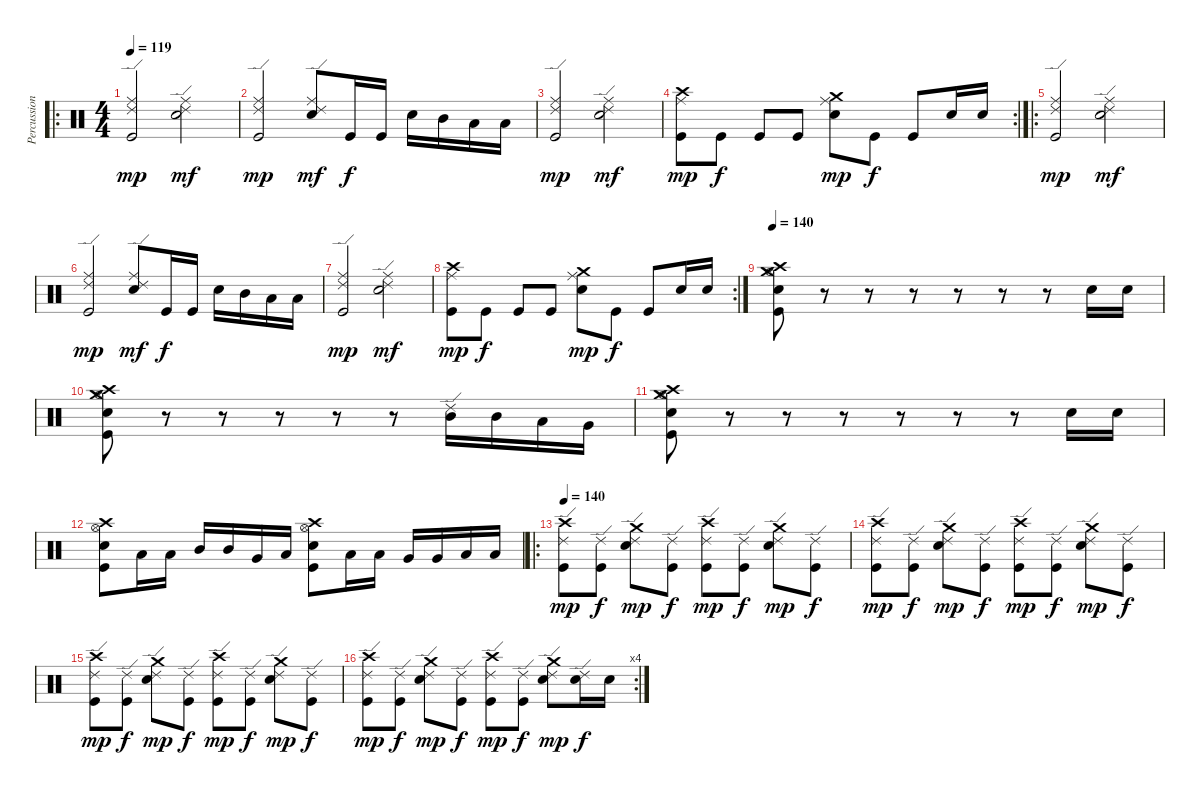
\track ("Percussion" "Percussion") {instrument percussion}
\staff {score}
\articulation defaults
\ro
\ts (4 4)
\tempo 119
\clef neutral
\ks c
("Ride (edge) 2" "Ride (middle)" "Kick (hit)").2{dy mp} ("Ride (edge) 2" "Ride (middle)" "Snare (hit) 2").2{dy mf} |
("Ride (edge) 2" "Ride (middle)" "Kick (hit)").2{dy mp} ("Ride (edge) 2" "Ride (middle)" "Snare (hit) 2").8{dy mf} "Kick (hit)".16{dy f} "Kick (hit)".16 "Snare (hit) 2".16 "Mid Tom (hit)".16 "Low Tom (hit)".16 "Low Tom (hit)".16 |
("Ride (edge) 2" "Ride (middle)" "Kick (hit)").2{dy mp} ("Ride (edge) 2" "Ride (middle)" "Snare (hit) 2").2{dy mf} |
\rc 2
("Crash high (hit)" "Ride (middle)" "Kick (hit)").8{dy mp} "Kick (hit)".8{dy f} "Kick (hit)".8 "Kick (hit)".8 ("Crash medium (hit)" "Ride (middle)" "Snare (hit) 2").8{dy mp} "Kick (hit)".8{dy f} "Kick (hit)".8 "Snare (hit) 2".16 "Snare (hit) 2".16 |
\ro
("Ride (edge) 2" "Ride (middle)" "Kick (hit)").2{dy mp} ("Ride (edge) 2" "Ride (middle)" "Snare (hit) 2").2{dy mf} |
("Ride (edge) 2" "Ride (middle)" "Kick (hit)").2{dy mp} ("Ride (edge) 2" "Ride (middle)" "Snare (hit) 2").8{dy mf} "Kick (hit)".16{dy f} "Kick (hit)".16 "Snare (hit) 2".16 "Mid Tom (hit)".16 "Low Tom (hit)".16 "Low Tom (hit)".16 |
("Ride (edge) 2" "Ride (middle)" "Kick (hit)").2{dy mp} ("Ride (edge) 2" "Ride (middle)" "Snare (hit) 2").2{dy mf} |
\rc 2
("Crash high (hit)" "Ride (middle)" "Kick (hit)").8{dy mp} "Kick (hit)".8{dy f} "Kick (hit)".8 "Kick (hit)".8 ("Crash medium (hit)" "Ride (middle)" "Snare (hit) 2").8{dy mp} "Kick (hit)".8{dy f} "Kick (hit)".8 "Snare (hit) 2".16 "Snare (hit) 2".16 |
\tempo 140
("Crash medium (hit)" "Crash high (hit)" "Hi-Hat (open)" "Snare (hit) 2" "Kick (hit)").8 r.8 r.8 r.8 r.8 r.8 r.8 "Snare (hit) 2".16 "Snare (hit) 2".16 |
("Crash medium (hit)" "Crash high (hit)" "Hi-Hat (open)" "Snare (hit) 2" "Kick (hit)").8 r.8 r.8 r.8 r.8 r.8 ("Ride (edge) 2" "Mid Tom (hit)").16 "Mid Tom (hit)".16 "Low Tom (hit)".16 "Very Low Tom (hit)".16 |
("Crash medium (hit)" "Crash high (hit)" "Hi-Hat (open)" "Snare (hit) 2" "Kick (hit)").8 r.8 r.8 r.8 r.8 r.8 r.8 "Snare (hit) 2".16 "Snare (hit) 2".16 |
("Hi-Hat (open)" "Crash high (hit)" "Snare (hit) 2" "Kick (hit)").8 "Low Tom (hit)".16 "Low Tom (hit)".16 "Mid Tom (hit)".16 "Mid Tom (hit)".16 "Very Low Tom (hit)".16 "Low Floor Tom (hit)".16 ("Hi-Hat (open)" "Crash high (hit)" "Snare (hit) 2" "Kick (hit)").8 "Low Tom (hit)".16 "Low Tom (hit)".16 "Very Low Tom (hit)".16 "Very Low Tom (hit)".16 "Low Tom (hit)".16 "Low Tom (hit)".16 |
\ro
\tempo 140
("Crash high (hit)" "Ride (edge) 2" "Kick (hit)").8{dy mp} ("Ride (edge) 2" "Kick (hit)").8{dy f} ("Crash medium (hit)" "Ride (edge) 2" "Snare (hit) 2").8{dy mp} ("Ride (edge) 2" "Kick (hit)").8{dy f} ("Crash high (hit)" "Ride (edge) 2" "Kick (hit)").8{dy mp} ("Ride (edge) 2" "Kick (hit)").8{dy f} ("Crash medium (hit)" "Ride (edge) 2" "Snare (hit) 2").8{dy mp} ("Ride (edge) 2" "Kick (hit)").8{dy f} |
("Crash high (hit)" "Ride (edge) 2" "Kick (hit)").8{dy mp} ("Ride (edge) 2" "Kick (hit)").8{dy f} ("Crash medium (hit)" "Ride (edge) 2" "Snare (hit) 2").8{dy mp} ("Ride (edge) 2" "Kick (hit)").8{dy f} ("Crash high (hit)" "Ride (edge) 2" "Kick (hit)").8{dy mp} ("Ride (edge) 2" "Kick (hit)").8{dy f} ("Crash medium (hit)" "Ride (edge) 2" "Snare (hit) 2").8{dy mp} ("Ride (edge) 2" "Kick (hit)").8{dy f} |
("Crash high (hit)" "Ride (edge) 2" "Kick (hit)").8{dy mp} ("Ride (edge) 2" "Kick (hit)").8{dy f} ("Crash medium (hit)" "Ride (edge) 2" "Snare (hit) 2").8{dy mp} ("Ride (edge) 2" "Kick (hit)").8{dy f} ("Crash high (hit)" "Ride (edge) 2" "Kick (hit)").8{dy mp} ("Ride (edge) 2" "Kick (hit)").8{dy f} ("Crash medium (hit)" "Ride (edge) 2" "Snare (hit) 2").8{dy mp} ("Ride (edge) 2" "Kick (hit)").8{dy f} |
\rc 4
("Crash high (hit)" "Ride (edge) 2" "Kick (hit)").8{dy mp} ("Ride (edge) 2" "Kick (hit)").8{dy f} ("Crash medium (hit)" "Ride (edge) 2" "Snare (hit) 2").8{dy mp} ("Ride (edge) 2" "Kick (hit)").8{dy f} ("Crash high (hit)" "Ride (edge) 2" "Kick (hit)").8{dy mp} ("Ride (edge) 2" "Kick (hit)").8{dy f} ("Crash medium (hit)" "Ride (edge) 2" "Snare (hit) 2").8{dy mp} ("Ride (edge) 2" "Snare (hit) 2").16{dy f} "Snare (hit) 2".16
